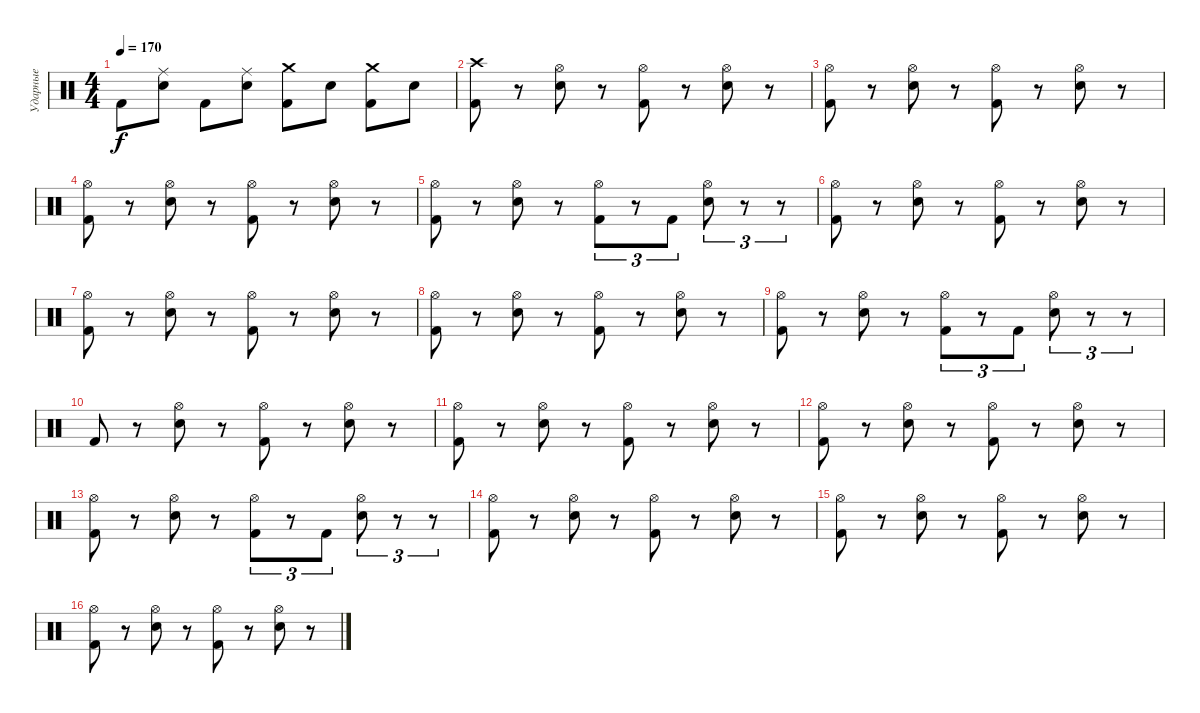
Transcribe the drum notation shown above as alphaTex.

\track ("Ударные" "Ударные") {instrument percussion}
\staff {score}
\articulation defaults
\ts (4 4)
\tempo 170
\clef neutral
\ks c "Kick (hit) 2".8{dy f}
("Ride (middle)" "Electric Snare (hit)").8 "Kick (hit) 2".8 ("Ride (middle)" "Electric Snare (hit)").8 ("Crash medium (hit)" "Kick (hit) 2").8 "Electric Snare (hit)".8 ("Crash medium (hit)" "Kick (hit) 2").8 "Electric Snare (hit)".8 |
("Crash high (hit)" "Kick (hit) 2").8 r.8 ("Hi-Hat (open)" "Electric Snare (hit)").8 r.8 ("Hi-Hat (open)" "Kick (hit) 2").8 r.8 ("Hi-Hat (open)" "Electric Snare (hit)").8 r.8 |
("Hi-Hat (open)" "Kick (hit) 2").8 r.8 ("Hi-Hat (open)" "Electric Snare (hit)").8 r.8 ("Hi-Hat (open)" "Kick (hit) 2").8 r.8 ("Hi-Hat (open)" "Electric Snare (hit)").8 r.8 |
("Hi-Hat (open)" "Kick (hit) 2").8 r.8 ("Hi-Hat (open)" "Electric Snare (hit)").8 r.8 ("Hi-Hat (open)" "Kick (hit) 2").8 r.8 ("Hi-Hat (open)" "Electric Snare (hit)").8 r.8 |
("Hi-Hat (open)" "Kick (hit) 2").8 r.8 ("Hi-Hat (open)" "Electric Snare (hit)").8 r.8 ("Hi-Hat (open)" "Kick (hit) 2").8{tu (3 2)} r.8{tu (3 2)} "Kick (hit) 2".8{tu (3 2)} ("Hi-Hat (open)" "Electric Snare (hit)").8{tu (3 2)} r.8{tu (3 2)} r.8{tu (3 2)} |
("Hi-Hat (open)" "Kick (hit) 2").8 r.8 ("Hi-Hat (open)" "Electric Snare (hit)").8 r.8 ("Hi-Hat (open)" "Kick (hit) 2").8 r.8 ("Hi-Hat (open)" "Electric Snare (hit)").8 r.8 |
("Hi-Hat (open)" "Kick (hit) 2").8 r.8 ("Hi-Hat (open)" "Electric Snare (hit)").8 r.8 ("Hi-Hat (open)" "Kick (hit) 2").8 r.8 ("Hi-Hat (open)" "Electric Snare (hit)").8 r.8 |
("Hi-Hat (open)" "Kick (hit) 2").8 r.8 ("Hi-Hat (open)" "Electric Snare (hit)").8 r.8 ("Hi-Hat (open)" "Kick (hit) 2").8 r.8 ("Hi-Hat (open)" "Electric Snare (hit)").8 r.8 |
("Hi-Hat (open)" "Kick (hit) 2").8 r.8 ("Hi-Hat (open)" "Electric Snare (hit)").8 r.8 ("Hi-Hat (open)" "Kick (hit) 2").8{tu (3 2)} r.8{tu (3 2)} "Kick (hit) 2".8{tu (3 2)} ("Hi-Hat (open)" "Electric Snare (hit)").8{tu (3 2)} r.8{tu (3 2)} r.8{tu (3 2)} |
"Kick (hit) 2".8 r.8 ("Hi-Hat (open)" "Electric Snare (hit)").8 r.8 ("Hi-Hat (open)" "Kick (hit) 2").8 r.8 ("Hi-Hat (open)" "Electric Snare (hit)").8 r.8 |
("Hi-Hat (open)" "Kick (hit) 2").8 r.8 ("Hi-Hat (open)" "Electric Snare (hit)").8 r.8 ("Hi-Hat (open)" "Kick (hit) 2").8 r.8 ("Hi-Hat (open)" "Electric Snare (hit)").8 r.8 |
("Hi-Hat (open)" "Kick (hit) 2").8 r.8 ("Hi-Hat (open)" "Electric Snare (hit)").8 r.8 ("Hi-Hat (open)" "Kick (hit) 2").8 r.8 ("Hi-Hat (open)" "Electric Snare (hit)").8 r.8 |
("Hi-Hat (open)" "Kick (hit) 2").8 r.8 ("Hi-Hat (open)" "Electric Snare (hit)").8 r.8 ("Hi-Hat (open)" "Kick (hit) 2").8{tu (3 2)} r.8{tu (3 2)} "Kick (hit) 2".8{tu (3 2)} ("Hi-Hat (open)" "Electric Snare (hit)").8{tu (3 2)} r.8{tu (3 2)} r.8{tu (3 2)} |
("Hi-Hat (open)" "Kick (hit) 2").8 r.8 ("Hi-Hat (open)" "Electric Snare (hit)").8 r.8 ("Hi-Hat (open)" "Kick (hit) 2").8 r.8 ("Hi-Hat (open)" "Electric Snare (hit)").8 r.8 |
("Hi-Hat (open)" "Kick (hit) 2").8 r.8 ("Hi-Hat (open)" "Electric Snare (hit)").8 r.8 ("Hi-Hat (open)" "Kick (hit) 2").8 r.8 ("Hi-Hat (open)" "Electric Snare (hit)").8 r.8 |
("Hi-Hat (open)" "Kick (hit) 2").8 r.8 ("Hi-Hat (open)" "Electric Snare (hit)").8 r.8 ("Hi-Hat (open)" "Kick (hit) 2").8 r.8 ("Hi-Hat (open)" "Electric Snare (hit)").8 r.8
